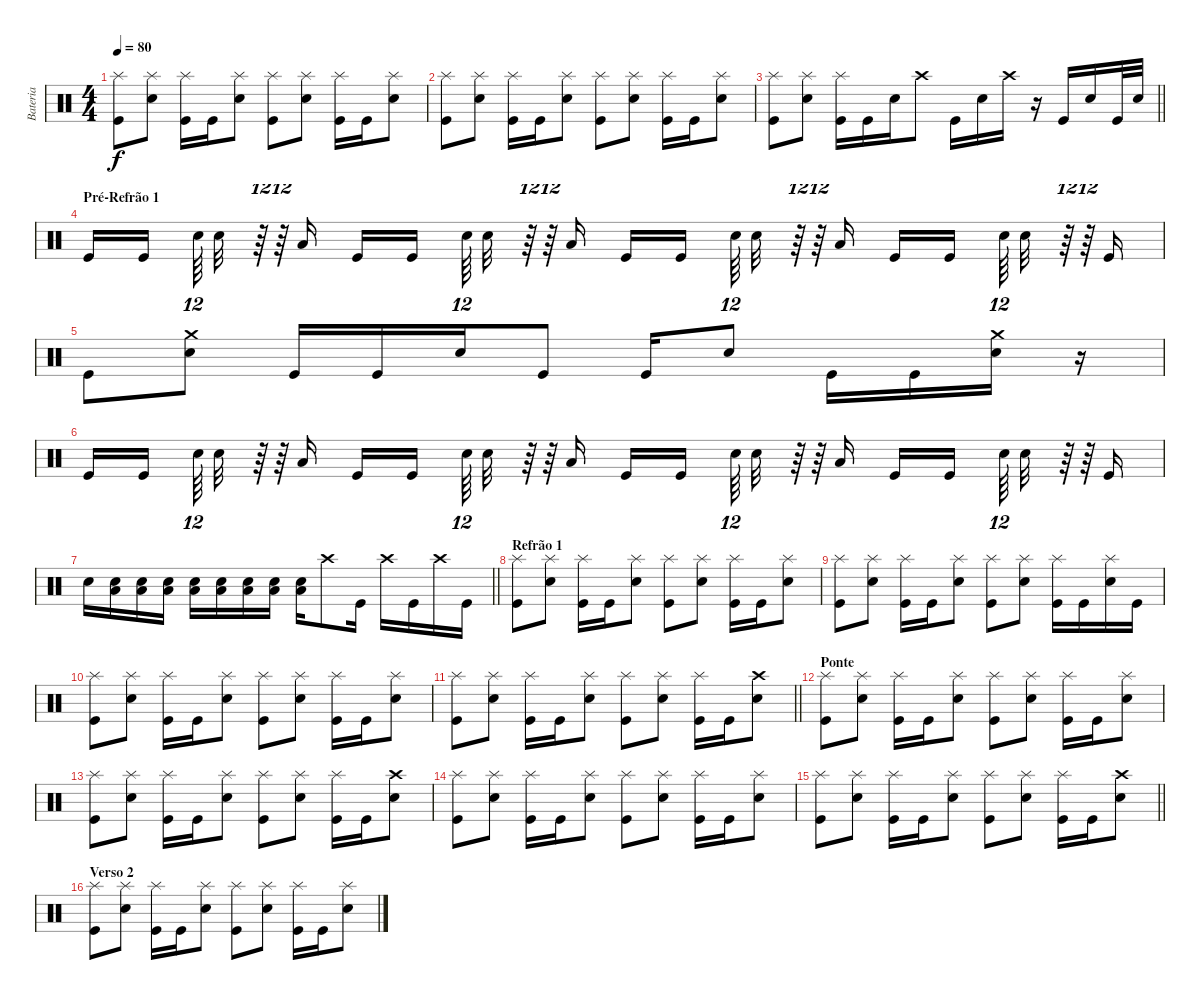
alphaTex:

\track ("Bateria" "Bateria") {instrument percussion}
\staff {score}
\articulation defaults
\ts (4 4)
\tempo 80
\clef neutral
\ks c
("Kick (hit)" "Splash (hit)").8{dy f} ("Electric Snare (hit)" "Splash (hit)").8 ("Kick (hit)" "Splash (hit)").16 "Kick (hit)".16 ("Electric Snare (hit)" "Splash (hit)").8 ("Kick (hit)" "Splash (hit)").8 ("Electric Snare (hit)" "Splash (hit)").8 ("Kick (hit)" "Splash (hit)").16 "Kick (hit)".16 ("Electric Snare (hit)" "Splash (hit)").8 |
("Kick (hit)" "Splash (hit)").8 ("Electric Snare (hit)" "Splash (hit)").8 ("Kick (hit)" "Splash (hit)").16 "Kick (hit)".16 ("Electric Snare (hit)" "Splash (hit)").8 ("Kick (hit)" "Splash (hit)").8 ("Electric Snare (hit)" "Splash (hit)").8 ("Kick (hit)" "Splash (hit)").16 "Kick (hit)".16 ("Electric Snare (hit)" "Splash (hit)").8 |
\barLineRight lightlight
("Kick (hit)" "Splash (hit)").8 ("Electric Snare (hit)" "Splash (hit)").8 ("Kick (hit)" "Splash (hit)").16 "Kick (hit)".16 "Electric Snare (hit)".16 "Crash high (hit)".8 "Kick (hit)".16 "Electric Snare (hit)".16 "Crash high (hit)".16 r.16 "Kick (hit)".16 "Electric Snare (hit)".16 "Kick (hit)".32 "Electric Snare (hit)".32 |
\section ("" "Pré-Refrão 1")
"Kick (hit)".16 "Kick (hit)".16{beam splitsecondary} "Electric Snare (hit)".64{tu (12 8)} "Electric Snare (hit)".32 r.64{tu (12 8)} r.64{tu (12 8)} "Low Tom (hit)".16 "Kick (hit)".16 "Kick (hit)".16{beam splitsecondary} "Electric Snare (hit)".64{tu (12 8)} "Electric Snare (hit)".32 r.64{tu (12 8)} r.64{tu (12 8)} "Low Tom (hit)".16 "Kick (hit)".16 "Kick (hit)".16{beam splitsecondary} "Electric Snare (hit)".64{tu (12 8)} "Electric Snare (hit)".32 r.64{tu (12 8)} r.64{tu (12 8)} "Low Tom (hit)".16 "Kick (hit)".16 "Kick (hit)".16{beam splitsecondary} "Electric Snare (hit)".64{tu (12 8)} "Electric Snare (hit)".32 r.64{tu (12 8)} r.64{tu (12 8)} "Kick (hit)".16 |
"Kick (hit)".8 ("Electric Snare (hit)" "Crash medium (hit)").8 "Kick (hit)".16 "Kick (hit)".16 "Electric Snare (hit)".16 "Kick (hit)".8 "Kick (hit)".16 "Electric Snare (hit)".8 "Kick (hit)".16 "Kick (hit)".16 ("Electric Snare (hit)" "Crash medium (hit)").16 r.16 |
"Kick (hit)".16 "Kick (hit)".16{beam splitsecondary} "Electric Snare (hit)".64{tu (12 8)} "Electric Snare (hit)".32 r.64{tu (12 8)} r.64{tu (12 8)} "Low Tom (hit)".16 "Kick (hit)".16 "Kick (hit)".16{beam splitsecondary} "Electric Snare (hit)".64{tu (12 8)} "Electric Snare (hit)".32 r.64{tu (12 8)} r.64{tu (12 8)} "Low Tom (hit)".16 "Kick (hit)".16 "Kick (hit)".16{beam splitsecondary} "Electric Snare (hit)".64{tu (12 8)} "Electric Snare (hit)".32 r.64{tu (12 8)} r.64{tu (12 8)} "Low Tom (hit)".16 "Kick (hit)".16 "Kick (hit)".16{beam splitsecondary} "Electric Snare (hit)".64{tu (12 8)} "Electric Snare (hit)".32 r.64{tu (12 8)} r.64{tu (12 8)} "Kick (hit)".16 |
\barLineRight lightlight "Electric Snare (hit)".16
("Electric Snare (hit)" "Low Floor Tom (hit)").16 ("Electric Snare (hit)" "Low Floor Tom (hit)").16 ("Electric Snare (hit)" "Low Floor Tom (hit)").16 ("Electric Snare (hit)" "Low Floor Tom (hit)").16 ("Electric Snare (hit)" "Low Floor Tom (hit)").16 ("Electric Snare (hit)" "Low Floor Tom (hit)").16 ("Electric Snare (hit)" "Low Floor Tom (hit)").16 ("Electric Snare (hit)" "Low Floor Tom (hit)").16 "Crash high (hit)".8 "Kick (hit)".16 "Crash high (hit)".16 "Kick (hit)".16 "Crash high (hit)".16 "Kick (hit)".16 |
\section ("" "Refrão 1")
("Kick (hit)" "Splash (hit)").8 ("Electric Snare (hit)" "Splash (hit)").8 ("Kick (hit)" "Splash (hit)").16 "Kick (hit)".16 ("Electric Snare (hit)" "Splash (hit)").8 ("Kick (hit)" "Splash (hit)").8 ("Electric Snare (hit)" "Splash (hit)").8 ("Kick (hit)" "Splash (hit)").16 "Kick (hit)".16 ("Electric Snare (hit)" "Splash (hit)").8 |
("Kick (hit)" "Splash (hit)").8 ("Electric Snare (hit)" "Splash (hit)").8 ("Kick (hit)" "Splash (hit)").16 "Kick (hit)".16 ("Electric Snare (hit)" "Splash (hit)").8 ("Kick (hit)" "Splash (hit)").8 ("Electric Snare (hit)" "Splash (hit)").8 ("Kick (hit)" "Splash (hit)").16 "Kick (hit)".16 ("Electric Snare (hit)" "Splash (hit)").16 "Kick (hit)".16 |
("Kick (hit)" "Splash (hit)").8 ("Electric Snare (hit)" "Splash (hit)").8 ("Kick (hit)" "Splash (hit)").16 "Kick (hit)".16 ("Electric Snare (hit)" "Splash (hit)").8 ("Kick (hit)" "Splash (hit)").8 ("Electric Snare (hit)" "Splash (hit)").8 ("Kick (hit)" "Splash (hit)").16 "Kick (hit)".16 ("Electric Snare (hit)" "Splash (hit)").8 |
\barLineRight lightlight
("Kick (hit)" "Splash (hit)").8 ("Electric Snare (hit)" "Splash (hit)").8 ("Kick (hit)" "Splash (hit)").16 "Kick (hit)".16 ("Electric Snare (hit)" "Splash (hit)").8 ("Kick (hit)" "Splash (hit)").8 ("Electric Snare (hit)" "Splash (hit)").8 ("Kick (hit)" "Splash (hit)").16 "Kick (hit)".16 ("Electric Snare (hit)" "Crash high (hit)").8 |
\section ("" "Ponte")
("Kick (hit)" "Splash (hit)").8 ("Electric Snare (hit)" "Splash (hit)").8 ("Kick (hit)" "Splash (hit)").16 "Kick (hit)".16 ("Electric Snare (hit)" "Splash (hit)").8 ("Kick (hit)" "Splash (hit)").8 ("Electric Snare (hit)" "Splash (hit)").8 ("Kick (hit)" "Splash (hit)").16 "Kick (hit)".16 ("Electric Snare (hit)" "Splash (hit)").8 |
("Kick (hit)" "Splash (hit)").8 ("Electric Snare (hit)" "Splash (hit)").8 ("Kick (hit)" "Splash (hit)").16 "Kick (hit)".16 ("Electric Snare (hit)" "Splash (hit)").8 ("Kick (hit)" "Splash (hit)").8 ("Electric Snare (hit)" "Splash (hit)").8 ("Kick (hit)" "Splash (hit)").16 "Kick (hit)".16 ("Electric Snare (hit)" "Crash high (hit)").8 |
("Kick (hit)" "Splash (hit)").8 ("Electric Snare (hit)" "Splash (hit)").8 ("Kick (hit)" "Splash (hit)").16 "Kick (hit)".16 ("Electric Snare (hit)" "Splash (hit)").8 ("Kick (hit)" "Splash (hit)").8 ("Electric Snare (hit)" "Splash (hit)").8 ("Kick (hit)" "Splash (hit)").16 "Kick (hit)".16 ("Electric Snare (hit)" "Splash (hit)").8 |
\barLineRight lightlight
("Kick (hit)" "Splash (hit)").8 ("Electric Snare (hit)" "Splash (hit)").8 ("Kick (hit)" "Splash (hit)").16 "Kick (hit)".16 ("Electric Snare (hit)" "Splash (hit)").8 ("Kick (hit)" "Splash (hit)").8 ("Electric Snare (hit)" "Splash (hit)").8 ("Kick (hit)" "Splash (hit)").16 "Kick (hit)".16 ("Electric Snare (hit)" "Crash high (hit)").8 |
\section ("" "Verso 2")
("Kick (hit)" "Splash (hit)").8 ("Electric Snare (hit)" "Splash (hit)").8 ("Kick (hit)" "Splash (hit)").16 "Kick (hit)".16 ("Electric Snare (hit)" "Splash (hit)").8 ("Kick (hit)" "Splash (hit)").8 ("Electric Snare (hit)" "Splash (hit)").8 ("Kick (hit)" "Splash (hit)").16 "Kick (hit)".16 ("Electric Snare (hit)" "Splash (hit)").8
